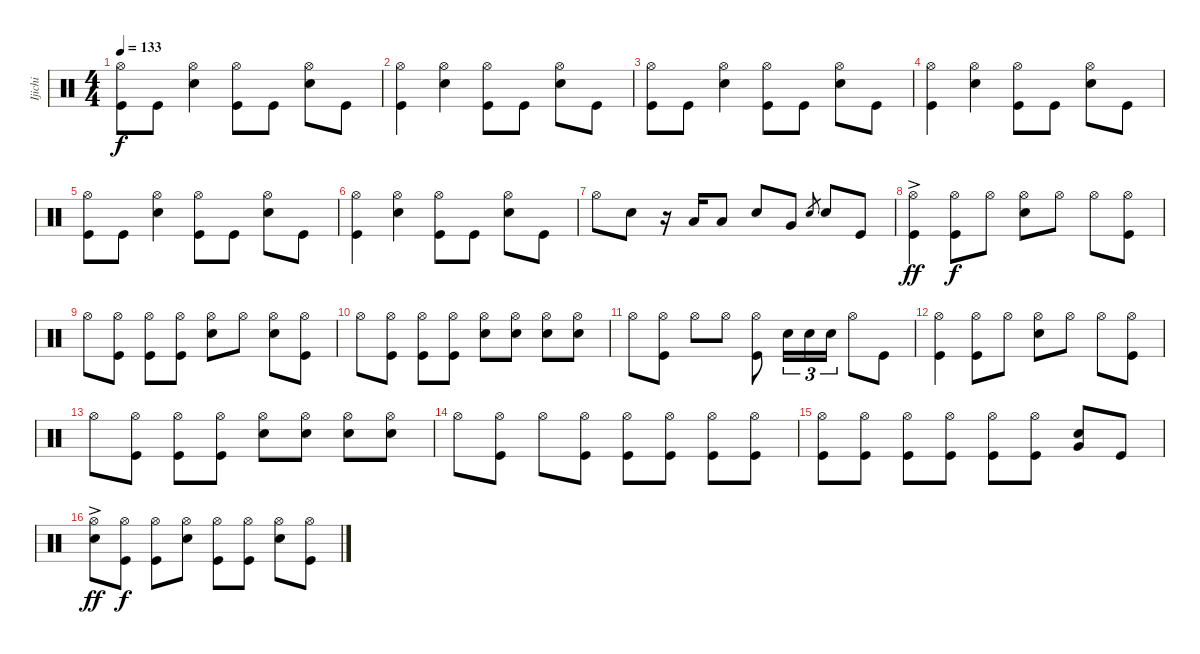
\track ("Ijichi" "Ijichi") {instrument percussion}
\staff {score}
\articulation defaults
\ts (4 4)
\tempo 133
\clef neutral
\ks c
("Hi-Hat (open)" "Kick (hit)").8{dy f} "Kick (hit)".8 ("Hi-Hat (open)" "Snare (hit) 2").4 ("Hi-Hat (open)" "Kick (hit)").8 "Kick (hit)".8 ("Hi-Hat (open)" "Snare (hit) 2").8 "Kick (hit)".8 |
("Hi-Hat (open)" "Kick (hit)").4 ("Hi-Hat (open)" "Snare (hit) 2").4 ("Hi-Hat (open)" "Kick (hit)").8 "Kick (hit)".8 ("Hi-Hat (open)" "Snare (hit) 2").8 "Kick (hit)".8 |
("Hi-Hat (open)" "Kick (hit)").8 "Kick (hit)".8 ("Hi-Hat (open)" "Snare (hit) 2").4 ("Hi-Hat (open)" "Kick (hit)").8 "Kick (hit)".8 ("Hi-Hat (open)" "Snare (hit) 2").8 "Kick (hit)".8 |
("Hi-Hat (open)" "Kick (hit)").4 ("Hi-Hat (open)" "Snare (hit) 2").4 ("Hi-Hat (open)" "Kick (hit)").8 "Kick (hit)".8 ("Hi-Hat (open)" "Snare (hit) 2").8 "Kick (hit)".8 |
("Hi-Hat (open)" "Kick (hit)").8 "Kick (hit)".8 ("Hi-Hat (open)" "Snare (hit) 2").4 ("Hi-Hat (open)" "Kick (hit)").8 "Kick (hit)".8 ("Hi-Hat (open)" "Snare (hit) 2").8 "Kick (hit)".8 |
("Hi-Hat (open)" "Kick (hit)").4 ("Hi-Hat (open)" "Snare (hit) 2").4 ("Hi-Hat (open)" "Kick (hit)").8 "Kick (hit)".8 ("Hi-Hat (open)" "Snare (hit) 2").8 "Kick (hit)".8 |
"Hi-Hat (open)".8 "Snare (hit) 2".8 r.16 "Low Tom (hit)".16 "Low Tom (hit)".8 "Snare (hit) 2".8 "Very Low Tom (hit)".8 "Snare (hit) 2".8{gr} "Snare (hit) 2".8 "Kick (hit)".8 |
("Hi-Hat (open)"{ac} "Kick (hit)").4{dy ff} ("Hi-Hat (open)" "Kick (hit)").8{dy f} "Hi-Hat (open)".8 ("Hi-Hat (open)" "Snare (hit) 2").8 "Hi-Hat (open)".8 "Hi-Hat (open)".8 ("Hi-Hat (open)" "Kick (hit)").8 |
"Hi-Hat (open)".8 ("Hi-Hat (open)" "Kick (hit)").8 ("Hi-Hat (open)" "Kick (hit)").8 ("Hi-Hat (open)" "Kick (hit)").8 ("Hi-Hat (open)" "Snare (hit) 2").8 "Hi-Hat (open)".8 ("Hi-Hat (open)" "Snare (hit) 2").8 ("Hi-Hat (open)" "Kick (hit)").8 |
"Hi-Hat (open)".8 ("Hi-Hat (open)" "Kick (hit)").8 ("Hi-Hat (open)" "Kick (hit)").8 ("Hi-Hat (open)" "Kick (hit)").8 ("Hi-Hat (open)" "Snare (hit) 2").8 ("Hi-Hat (open)" "Snare (hit) 2").8 ("Hi-Hat (open)" "Snare (hit) 2").8 ("Hi-Hat (open)" "Snare (hit) 2").8 |
"Hi-Hat (open)".8 ("Hi-Hat (open)" "Kick (hit)").8 "Hi-Hat (open)".8 "Hi-Hat (open)".8 ("Hi-Hat (open)" "Kick (hit)").8 "Snare (hit) 2".16{tu (3 2)} "Snare (hit) 2".16{tu (3 2)} "Snare (hit) 2".16{tu (3 2)} "Hi-Hat (open)".8 "Kick (hit)".8 |
("Hi-Hat (open)" "Kick (hit)").4 ("Hi-Hat (open)" "Kick (hit)").8 "Hi-Hat (open)".8 ("Hi-Hat (open)" "Snare (hit) 2").8 "Hi-Hat (open)".8 "Hi-Hat (open)".8 ("Hi-Hat (open)" "Kick (hit)").8 |
"Hi-Hat (open)".8 ("Hi-Hat (open)" "Kick (hit)").8 ("Hi-Hat (open)" "Kick (hit)").8 ("Hi-Hat (open)" "Kick (hit)").8 ("Hi-Hat (open)" "Snare (hit) 2").8 ("Hi-Hat (open)" "Snare (hit) 2").8 ("Hi-Hat (open)" "Snare (hit) 2").8 ("Hi-Hat (open)" "Snare (hit) 2").8 |
"Hi-Hat (open)".8 ("Hi-Hat (open)" "Kick (hit)").8 "Hi-Hat (open)".8 ("Hi-Hat (open)" "Kick (hit)").8 ("Hi-Hat (open)" "Kick (hit)").8 ("Hi-Hat (open)" "Kick (hit)").8 ("Hi-Hat (open)" "Kick (hit)").8 ("Hi-Hat (open)" "Kick (hit)").8 |
("Hi-Hat (open)" "Kick (hit)").8 ("Hi-Hat (open)" "Kick (hit)").8 ("Hi-Hat (open)" "Kick (hit)").8 ("Hi-Hat (open)" "Kick (hit)").8 ("Hi-Hat (open)" "Kick (hit)").8 ("Hi-Hat (open)" "Kick (hit)").8 ("Snare (hit) 2" "Very Low Tom (hit)").8 "Kick (hit)".8 |
("Hi-Hat (open)"{ac} "Snare (hit) 2").8{dy ff} ("Hi-Hat (open)" "Kick (hit)").8{dy f} ("Hi-Hat (open)" "Kick (hit)").8 ("Hi-Hat (open)" "Snare (hit) 2").8 ("Hi-Hat (open)" "Kick (hit)").8 ("Hi-Hat (open)" "Kick (hit)").8 ("Hi-Hat (open)" "Snare (hit) 2").8 ("Hi-Hat (open)" "Kick (hit)").8
